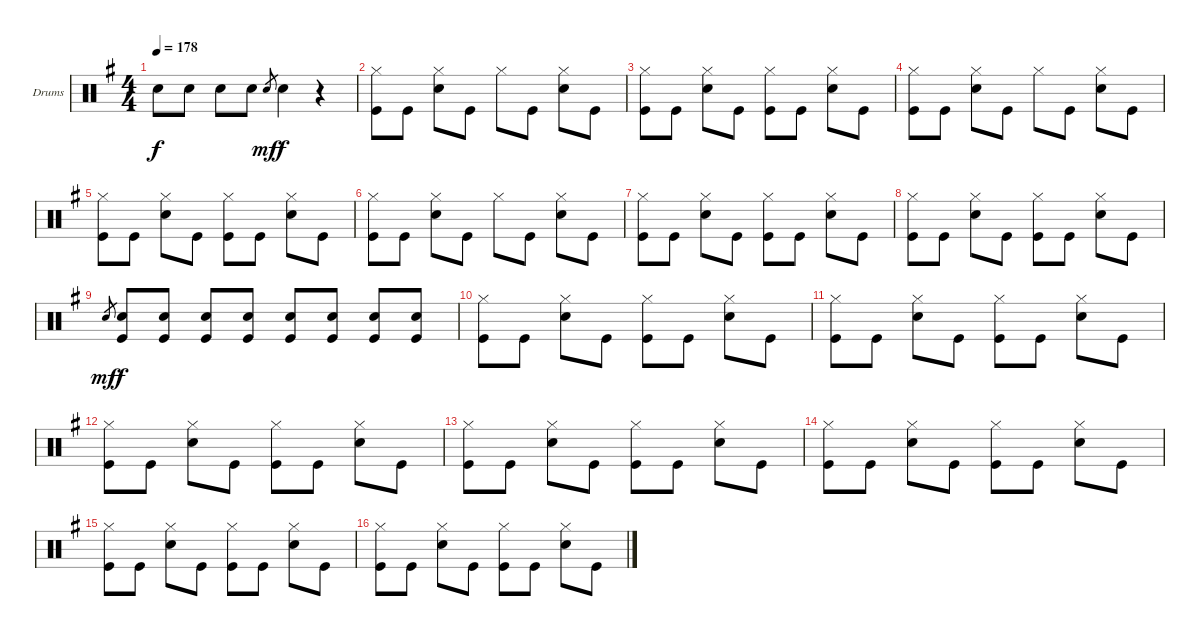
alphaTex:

\bracketExtendMode groupsimilarinstruments
\firstSystemTrackNameOrientation horizontal
\otherSystemsTrackNameOrientation horizontal
\track ("Drumkit" "Drums") {instrument percussion}
\staff {score}
\articulation defaults
\ts (4 4)
\tempo 178
\clef neutral
\ks eminor "Snare (hit) 2".8{dy f} "Snare (hit) 2".8 "Snare (hit) 2".8 "Snare (hit) 2".8 "Snare (hit) 2".8{gr dy mf} "Snare (hit) 2".4{dy f}
r.4 |
("Hi-Hat (closed)" "Kick (hit)").8 "Kick (hit)".8 ("Hi-Hat (closed)" "Snare (hit) 2").8 "Kick (hit)".8 "Hi-Hat (closed)".8 "Kick (hit)".8 ("Hi-Hat (closed)" "Snare (hit) 2").8 "Kick (hit)".8 |
("Hi-Hat (closed)" "Kick (hit)").8 "Kick (hit)".8 ("Hi-Hat (closed)" "Snare (hit) 2").8 "Kick (hit)".8 ("Hi-Hat (closed)" "Kick (hit)").8 "Kick (hit)".8 ("Hi-Hat (closed)" "Snare (hit) 2").8 "Kick (hit)".8 |
("Hi-Hat (closed)" "Kick (hit)").8 "Kick (hit)".8 ("Hi-Hat (closed)" "Snare (hit) 2").8 "Kick (hit)".8 "Hi-Hat (closed)".8 "Kick (hit)".8 ("Hi-Hat (closed)" "Snare (hit) 2").8 "Kick (hit)".8 |
("Hi-Hat (closed)" "Kick (hit)").8 "Kick (hit)".8 ("Hi-Hat (closed)" "Snare (hit) 2").8 "Kick (hit)".8 ("Hi-Hat (closed)" "Kick (hit)").8 "Kick (hit)".8 ("Hi-Hat (closed)" "Snare (hit) 2").8 "Kick (hit)".8 |
("Hi-Hat (closed)" "Kick (hit)").8 "Kick (hit)".8 ("Hi-Hat (closed)" "Snare (hit) 2").8 "Kick (hit)".8 "Hi-Hat (closed)".8 "Kick (hit)".8 ("Hi-Hat (closed)" "Snare (hit) 2").8 "Kick (hit)".8 |
("Hi-Hat (closed)" "Kick (hit)").8 "Kick (hit)".8 ("Hi-Hat (closed)" "Snare (hit) 2").8 "Kick (hit)".8 ("Hi-Hat (closed)" "Kick (hit)").8 "Kick (hit)".8 ("Hi-Hat (closed)" "Snare (hit) 2").8 "Kick (hit)".8 |
("Hi-Hat (closed)" "Kick (hit)").8 "Kick (hit)".8 ("Hi-Hat (closed)" "Snare (hit) 2").8 "Kick (hit)".8 ("Hi-Hat (closed)" "Kick (hit)").8 "Kick (hit)".8 ("Hi-Hat (closed)" "Snare (hit) 2").8 "Kick (hit)".8 |
"Snare (hit) 2".8{gr dy mf} ("Snare (hit) 2" "Kick (hit)").8{dy f} ("Snare (hit) 2" "Kick (hit)").8 ("Snare (hit) 2" "Kick (hit)").8 ("Snare (hit) 2" "Kick (hit)").8 ("Snare (hit) 2" "Kick (hit)").8 ("Snare (hit) 2" "Kick (hit)").8 ("Snare (hit) 2" "Kick (hit)").8 ("Snare (hit) 2" "Kick (hit)").8 |
("Hi-Hat (closed)" "Kick (hit)").8 "Kick (hit)".8 ("Hi-Hat (closed)" "Snare (hit) 2").8 "Kick (hit)".8 ("Hi-Hat (closed)" "Kick (hit)").8 "Kick (hit)".8 ("Hi-Hat (closed)" "Snare (hit) 2").8 "Kick (hit)".8 |
("Hi-Hat (closed)" "Kick (hit)").8 "Kick (hit)".8 ("Hi-Hat (closed)" "Snare (hit) 2").8 "Kick (hit)".8 ("Hi-Hat (closed)" "Kick (hit)").8 "Kick (hit)".8 ("Hi-Hat (closed)" "Snare (hit) 2").8 "Kick (hit)".8 |
("Hi-Hat (closed)" "Kick (hit)").8 "Kick (hit)".8 ("Hi-Hat (closed)" "Snare (hit) 2").8 "Kick (hit)".8 ("Hi-Hat (closed)" "Kick (hit)").8 "Kick (hit)".8 ("Hi-Hat (closed)" "Snare (hit) 2").8 "Kick (hit)".8 |
("Hi-Hat (closed)" "Kick (hit)").8 "Kick (hit)".8 ("Hi-Hat (closed)" "Snare (hit) 2").8 "Kick (hit)".8 ("Hi-Hat (closed)" "Kick (hit)").8 "Kick (hit)".8 ("Hi-Hat (closed)" "Snare (hit) 2").8 "Kick (hit)".8 |
("Hi-Hat (closed)" "Kick (hit)").8 "Kick (hit)".8 ("Hi-Hat (closed)" "Snare (hit) 2").8 "Kick (hit)".8 ("Hi-Hat (closed)" "Kick (hit)").8 "Kick (hit)".8 ("Hi-Hat (closed)" "Snare (hit) 2").8 "Kick (hit)".8 |
("Hi-Hat (closed)" "Kick (hit)").8 "Kick (hit)".8 ("Hi-Hat (closed)" "Snare (hit) 2").8 "Kick (hit)".8 ("Hi-Hat (closed)" "Kick (hit)").8 "Kick (hit)".8 ("Hi-Hat (closed)" "Snare (hit) 2").8 "Kick (hit)".8 |
("Hi-Hat (closed)" "Kick (hit)").8 "Kick (hit)".8 ("Hi-Hat (closed)" "Snare (hit) 2").8 "Kick (hit)".8 ("Hi-Hat (closed)" "Kick (hit)").8 "Kick (hit)".8 ("Hi-Hat (closed)" "Snare (hit) 2").8 "Kick (hit)".8
